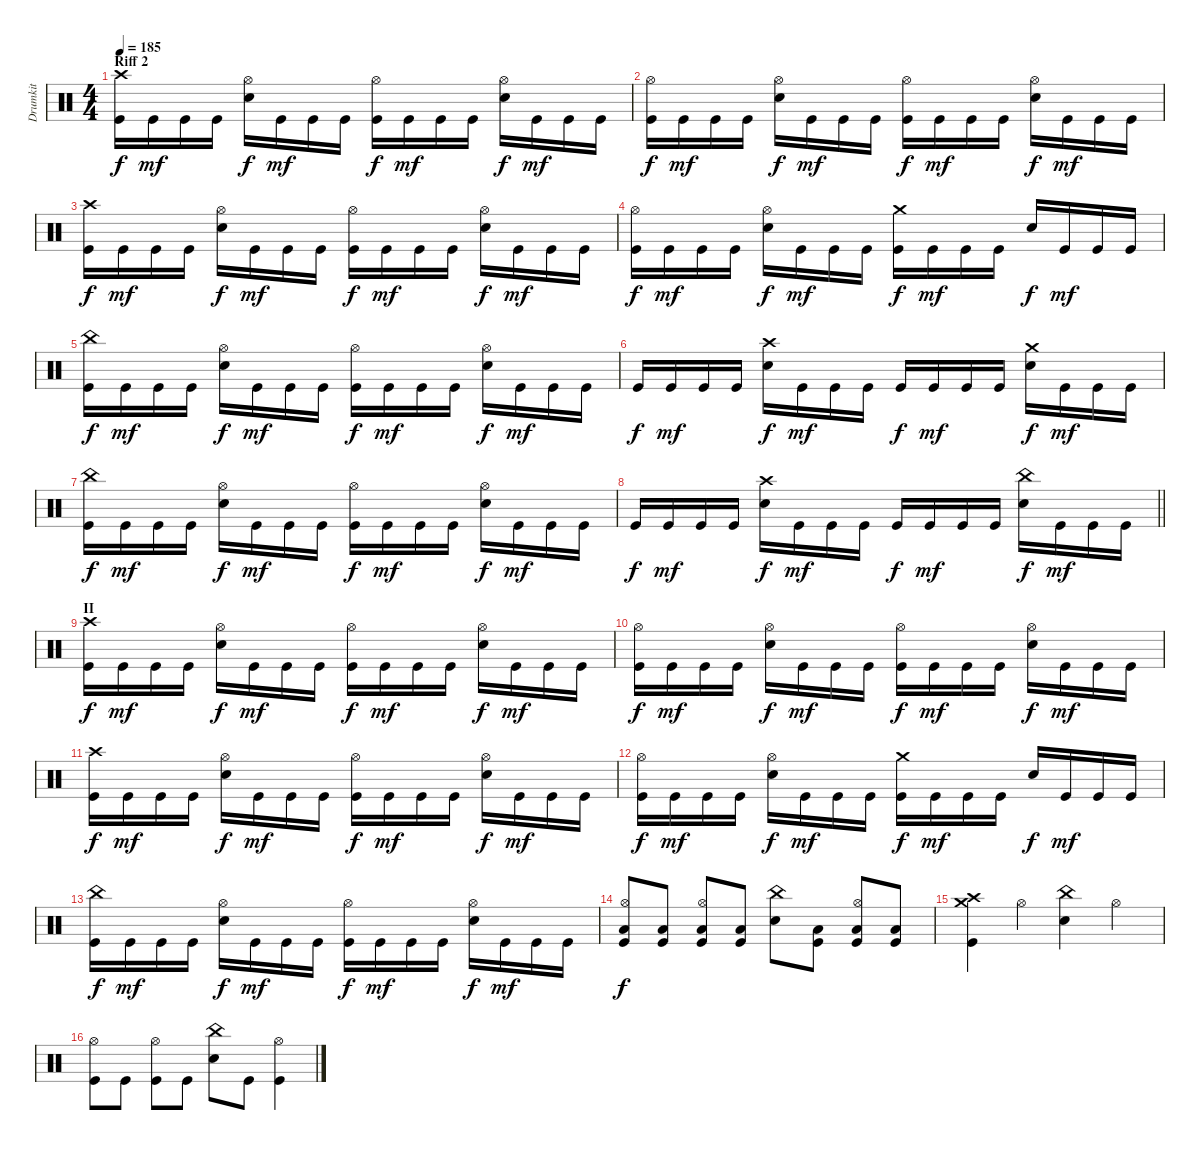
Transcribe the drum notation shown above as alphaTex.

\track ("Drumkit" "Drumkit") {instrument percussion}
\staff {score}
\articulation defaults
\ts (4 4)
\section ("" "Riff 2")
\tempo 185
\clef neutral
\ks c
("Kick (hit)" "Crash high (hit)").16{dy f} "Kick (hit)".16{dy mf} "Kick (hit)".16 "Kick (hit)".16 ("Snare (hit) 2" "Hi-Hat (open)").16{dy f} "Kick (hit)".16{dy mf} "Kick (hit)".16 "Kick (hit)".16 ("Kick (hit)" "Hi-Hat (open)").16{dy f} "Kick (hit)".16{dy mf} "Kick (hit)".16 "Kick (hit)".16 ("Snare (hit) 2" "Hi-Hat (open)").16{dy f} "Kick (hit)".16{dy mf} "Kick (hit)".16 "Kick (hit)".16 |
("Kick (hit)" "Hi-Hat (open)").16{dy f} "Kick (hit)".16{dy mf} "Kick (hit)".16 "Kick (hit)".16 ("Snare (hit) 2" "Hi-Hat (open)").16{dy f} "Kick (hit)".16{dy mf} "Kick (hit)".16 "Kick (hit)".16 ("Kick (hit)" "Hi-Hat (open)").16{dy f} "Kick (hit)".16{dy mf} "Kick (hit)".16 "Kick (hit)".16 ("Snare (hit) 2" "Hi-Hat (open)").16{dy f} "Kick (hit)".16{dy mf} "Kick (hit)".16 "Kick (hit)".16 |
("Kick (hit)" "Crash high (hit)").16{dy f} "Kick (hit)".16{dy mf} "Kick (hit)".16 "Kick (hit)".16 ("Snare (hit) 2" "Hi-Hat (open)").16{dy f} "Kick (hit)".16{dy mf} "Kick (hit)".16 "Kick (hit)".16 ("Kick (hit)" "Hi-Hat (open)").16{dy f} "Kick (hit)".16{dy mf} "Kick (hit)".16 "Kick (hit)".16 ("Snare (hit) 2" "Hi-Hat (open)").16{dy f} "Kick (hit)".16{dy mf} "Kick (hit)".16 "Kick (hit)".16 |
("Kick (hit)" "Hi-Hat (open)").16{dy f} "Kick (hit)".16{dy mf} "Kick (hit)".16 "Kick (hit)".16 ("Snare (hit) 2" "Hi-Hat (open)").16{dy f} "Kick (hit)".16{dy mf} "Kick (hit)".16 "Kick (hit)".16 ("Kick (hit)" "Crash medium (hit)").16{dy f} "Kick (hit)".16{dy mf} "Kick (hit)".16 "Kick (hit)".16 "Snare (hit) 2".16{dy f} "Kick (hit)".16{dy mf} "Kick (hit)".16 "Kick (hit)".16 |
("Kick (hit)" "China (hit)").16{dy f} "Kick (hit)".16{dy mf} "Kick (hit)".16 "Kick (hit)".16 ("Snare (hit) 2" "Hi-Hat (open)").16{dy f} "Kick (hit)".16{dy mf} "Kick (hit)".16 "Kick (hit)".16 ("Kick (hit)" "Hi-Hat (open)").16{dy f} "Kick (hit)".16{dy mf} "Kick (hit)".16 "Kick (hit)".16 ("Snare (hit) 2" "Hi-Hat (open)").16{dy f} "Kick (hit)".16{dy mf} "Kick (hit)".16 "Kick (hit)".16 |
"Kick (hit)".16{dy f} "Kick (hit)".16{dy mf} "Kick (hit)".16 "Kick (hit)".16 ("Snare (hit) 2" "Crash high (hit)").16{dy f} "Kick (hit)".16{dy mf} "Kick (hit)".16 "Kick (hit)".16 "Kick (hit)".16{dy f} "Kick (hit)".16{dy mf} "Kick (hit)".16 "Kick (hit)".16 ("Snare (hit) 2" "Crash medium (hit)").16{dy f} "Kick (hit)".16{dy mf} "Kick (hit)".16 "Kick (hit)".16 |
("Kick (hit)" "China (hit)").16{dy f} "Kick (hit)".16{dy mf} "Kick (hit)".16 "Kick (hit)".16 ("Snare (hit) 2" "Hi-Hat (open)").16{dy f} "Kick (hit)".16{dy mf} "Kick (hit)".16 "Kick (hit)".16 ("Kick (hit)" "Hi-Hat (open)").16{dy f} "Kick (hit)".16{dy mf} "Kick (hit)".16 "Kick (hit)".16 ("Snare (hit) 2" "Hi-Hat (open)").16{dy f} "Kick (hit)".16{dy mf} "Kick (hit)".16 "Kick (hit)".16 |
\barLineRight lightlight "Kick (hit)".16{dy f} "Kick (hit)".16{dy mf} "Kick (hit)".16 "Kick (hit)".16
("Snare (hit) 2" "Crash high (hit)").16{dy f} "Kick (hit)".16{dy mf} "Kick (hit)".16 "Kick (hit)".16 "Kick (hit)".16{dy f} "Kick (hit)".16{dy mf} "Kick (hit)".16 "Kick (hit)".16 ("Snare (hit) 2" "China (hit)").16{dy f} "Kick (hit)".16{dy mf} "Kick (hit)".16 "Kick (hit)".16 |
\section ("" "II")
("Kick (hit)" "Crash high (hit)").16{dy f} "Kick (hit)".16{dy mf} "Kick (hit)".16 "Kick (hit)".16 ("Snare (hit) 2" "Hi-Hat (open)").16{dy f} "Kick (hit)".16{dy mf} "Kick (hit)".16 "Kick (hit)".16 ("Kick (hit)" "Hi-Hat (open)").16{dy f} "Kick (hit)".16{dy mf} "Kick (hit)".16 "Kick (hit)".16 ("Snare (hit) 2" "Hi-Hat (open)").16{dy f} "Kick (hit)".16{dy mf} "Kick (hit)".16 "Kick (hit)".16 |
("Kick (hit)" "Hi-Hat (open)").16{dy f} "Kick (hit)".16{dy mf} "Kick (hit)".16 "Kick (hit)".16 ("Snare (hit) 2" "Hi-Hat (open)").16{dy f} "Kick (hit)".16{dy mf} "Kick (hit)".16 "Kick (hit)".16 ("Kick (hit)" "Hi-Hat (open)").16{dy f} "Kick (hit)".16{dy mf} "Kick (hit)".16 "Kick (hit)".16 ("Snare (hit) 2" "Hi-Hat (open)").16{dy f} "Kick (hit)".16{dy mf} "Kick (hit)".16 "Kick (hit)".16 |
("Kick (hit)" "Crash high (hit)").16{dy f} "Kick (hit)".16{dy mf} "Kick (hit)".16 "Kick (hit)".16 ("Snare (hit) 2" "Hi-Hat (open)").16{dy f} "Kick (hit)".16{dy mf} "Kick (hit)".16 "Kick (hit)".16 ("Kick (hit)" "Hi-Hat (open)").16{dy f} "Kick (hit)".16{dy mf} "Kick (hit)".16 "Kick (hit)".16 ("Snare (hit) 2" "Hi-Hat (open)").16{dy f} "Kick (hit)".16{dy mf} "Kick (hit)".16 "Kick (hit)".16 |
("Kick (hit)" "Hi-Hat (open)").16{dy f} "Kick (hit)".16{dy mf} "Kick (hit)".16 "Kick (hit)".16 ("Snare (hit) 2" "Hi-Hat (open)").16{dy f} "Kick (hit)".16{dy mf} "Kick (hit)".16 "Kick (hit)".16 ("Kick (hit)" "Crash medium (hit)").16{dy f} "Kick (hit)".16{dy mf} "Kick (hit)".16 "Kick (hit)".16 "Snare (hit) 2".16{dy f} "Kick (hit)".16{dy mf} "Kick (hit)".16 "Kick (hit)".16 |
("Kick (hit)" "China (hit)").16{dy f} "Kick (hit)".16{dy mf} "Kick (hit)".16 "Kick (hit)".16 ("Snare (hit) 2" "Hi-Hat (open)").16{dy f} "Kick (hit)".16{dy mf} "Kick (hit)".16 "Kick (hit)".16 ("Kick (hit)" "Hi-Hat (open)").16{dy f} "Kick (hit)".16{dy mf} "Kick (hit)".16 "Kick (hit)".16 ("Snare (hit) 2" "Hi-Hat (open)").16{dy f} "Kick (hit)".16{dy mf} "Kick (hit)".16 "Kick (hit)".16 |
("Kick (hit)" "Low Floor Tom (hit)" "Hi-Hat (open)").8{dy f} ("Kick (hit)" "Low Floor Tom (hit)").8 ("Kick (hit)" "Low Floor Tom (hit)" "Hi-Hat (open)").8 ("Kick (hit)" "Low Floor Tom (hit)").8 ("Snare (hit) 2" "China (hit)").8 ("Kick (hit)" "Low Floor Tom (hit)").8 ("Kick (hit)" "Low Floor Tom (hit)" "Hi-Hat (open)").8 ("Kick (hit)" "Low Floor Tom (hit)").8 |
("Kick (hit)" "Crash high (hit)" "Crash medium (hit)").4 "Hi-Hat (open)".4 ("Snare (hit) 2" "China (hit)").4 "Hi-Hat (open)".4 |
("Kick (hit)" "Hi-Hat (open)").8 "Kick (hit)".8 ("Kick (hit)" "Hi-Hat (open)").8 "Kick (hit)".8 ("Snare (hit) 2" "China (hit)").8 "Kick (hit)".8 ("Kick (hit)" "Hi-Hat (open)").4
